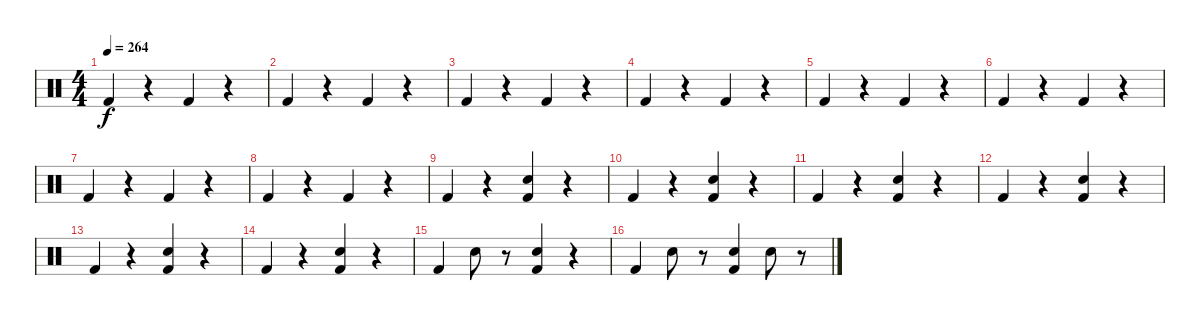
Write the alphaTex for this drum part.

\track "" {instrument percussion}
\staff {score}
\articulation defaults
\ts (4 4)
\tempo 264
\clef neutral
\ks c "Kick (hit) 2".4{dy f}
r.4 "Kick (hit) 2".4 r.4 |
"Kick (hit) 2".4 r.4 "Kick (hit) 2".4 r.4 |
"Kick (hit) 2".4 r.4 "Kick (hit) 2".4 r.4 |
"Kick (hit) 2".4 r.4 "Kick (hit) 2".4 r.4 |
"Kick (hit) 2".4 r.4 "Kick (hit) 2".4 r.4 |
"Kick (hit) 2".4 r.4 "Kick (hit) 2".4 r.4 |
"Kick (hit) 2".4 r.4 "Kick (hit) 2".4 r.4 |
"Kick (hit) 2".4 r.4 "Kick (hit) 2".4 r.4 |
"Kick (hit) 2".4 r.4 ("Snare (hit) 2" "Kick (hit) 2").4 r.4 |
"Kick (hit) 2".4 r.4 ("Snare (hit) 2" "Kick (hit) 2").4 r.4 |
"Kick (hit) 2".4 r.4 ("Snare (hit) 2" "Kick (hit) 2").4 r.4 |
"Kick (hit) 2".4 r.4 ("Snare (hit) 2" "Kick (hit) 2").4 r.4 |
"Kick (hit) 2".4 r.4 ("Snare (hit) 2" "Kick (hit) 2").4 r.4 |
"Kick (hit) 2".4 r.4 ("Snare (hit) 2" "Kick (hit) 2").4 r.4 |
"Kick (hit) 2".4 "Snare (hit) 2".8 r.8 ("Snare (hit) 2" "Kick (hit) 2").4 r.4 |
"Kick (hit) 2".4 "Snare (hit) 2".8 r.8 ("Snare (hit) 2" "Kick (hit) 2").4 "Snare (hit) 2".8 r.8
